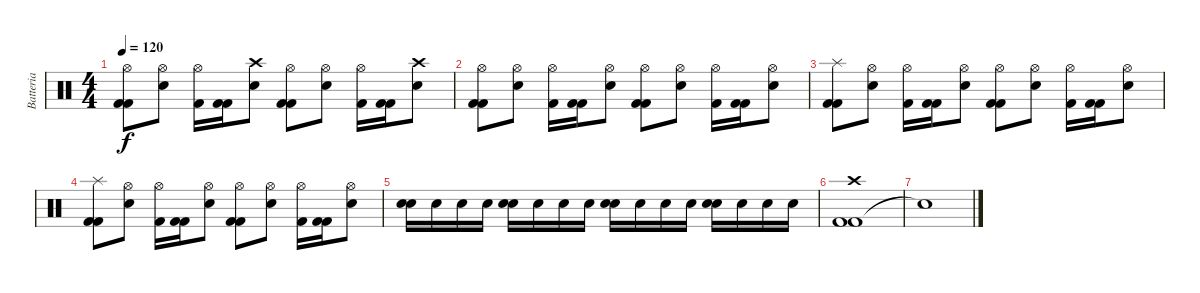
\track ("Batteria" "Batteria") {instrument percussion}
\staff {score}
\articulation defaults
\ts (4 4)
\tempo 120
\clef neutral
\ks c
("Kick (hit) 2" "Kick (hit) 2" "Hi-Hat (open)").8{dy f} ("Snare (hit) 2" "Hi-Hat (open)").8 ("Kick (hit) 2" "Hi-Hat (open)").16 ("Kick (hit) 2" "Kick (hit) 2").16 ("Crash high (hit)" "Snare (hit) 2").8 ("Hi-Hat (open)" "Kick (hit) 2" "Kick (hit) 2").8 ("Snare (hit) 2" "Hi-Hat (open)").8 ("Kick (hit) 2" "Hi-Hat (open)").16 ("Kick (hit) 2" "Kick (hit) 2").16 ("Crash high (hit)" "Snare (hit) 2").8 |
("Kick (hit) 2" "Kick (hit) 2" "Hi-Hat (open)").8 ("Snare (hit) 2" "Hi-Hat (open)").8 ("Kick (hit) 2" "Hi-Hat (open)").16 ("Kick (hit) 2" "Kick (hit) 2").16 ("Snare (hit) 2" "Hi-Hat (open)").8 ("Hi-Hat (open)" "Kick (hit) 2" "Kick (hit) 2").8 ("Snare (hit) 2" "Hi-Hat (open)").8 ("Kick (hit) 2" "Hi-Hat (open)").16 ("Kick (hit) 2" "Kick (hit) 2").16 ("Snare (hit) 2" "Hi-Hat (open)").8 |
("Kick (hit) 2" "Kick (hit) 2" "Splash (hit)").8 ("Snare (hit) 2" "Hi-Hat (open)").8 ("Kick (hit) 2" "Hi-Hat (open)").16 ("Kick (hit) 2" "Kick (hit) 2").16 ("Snare (hit) 2" "Hi-Hat (open)").8 ("Hi-Hat (open)" "Kick (hit) 2" "Kick (hit) 2").8 ("Snare (hit) 2" "Hi-Hat (open)").8 ("Kick (hit) 2" "Hi-Hat (open)").16 ("Kick (hit) 2" "Kick (hit) 2").16 ("Snare (hit) 2" "Hi-Hat (open)").8 |
("Kick (hit) 2" "Kick (hit) 2" "Splash (hit)").8 ("Snare (hit) 2" "Hi-Hat (open)").8 ("Kick (hit) 2" "Hi-Hat (open)").16 ("Kick (hit) 2" "Kick (hit) 2").16 ("Snare (hit) 2" "Hi-Hat (open)").8 ("Hi-Hat (open)" "Kick (hit) 2" "Kick (hit) 2").8 ("Snare (hit) 2" "Hi-Hat (open)").8 ("Kick (hit) 2" "Hi-Hat (open)").16 ("Kick (hit) 2" "Kick (hit) 2").16 ("Snare (hit) 2" "Hi-Hat (open)").8 |
("Snare (hit) 2" "Snare (hit) 2").16 "Snare (hit) 2".16 "Snare (hit) 2".16 "Snare (hit) 2".16 ("Snare (hit) 2" "Snare (hit) 2").16 "Snare (hit) 2".16 "Snare (hit) 2".16 "Snare (hit) 2".16 ("Snare (hit) 2" "Snare (hit) 2").16 "Snare (hit) 2".16 "Snare (hit) 2".16 "Snare (hit) 2".16 ("Snare (hit) 2" "Snare (hit) 2").16 "Snare (hit) 2".16 "Snare (hit) 2".16 "Snare (hit) 2".16 |
("Kick (hit) 2" "Kick (hit) 2" "Crash high (hit)").1 |
"Snare (hit)"{t}.1
